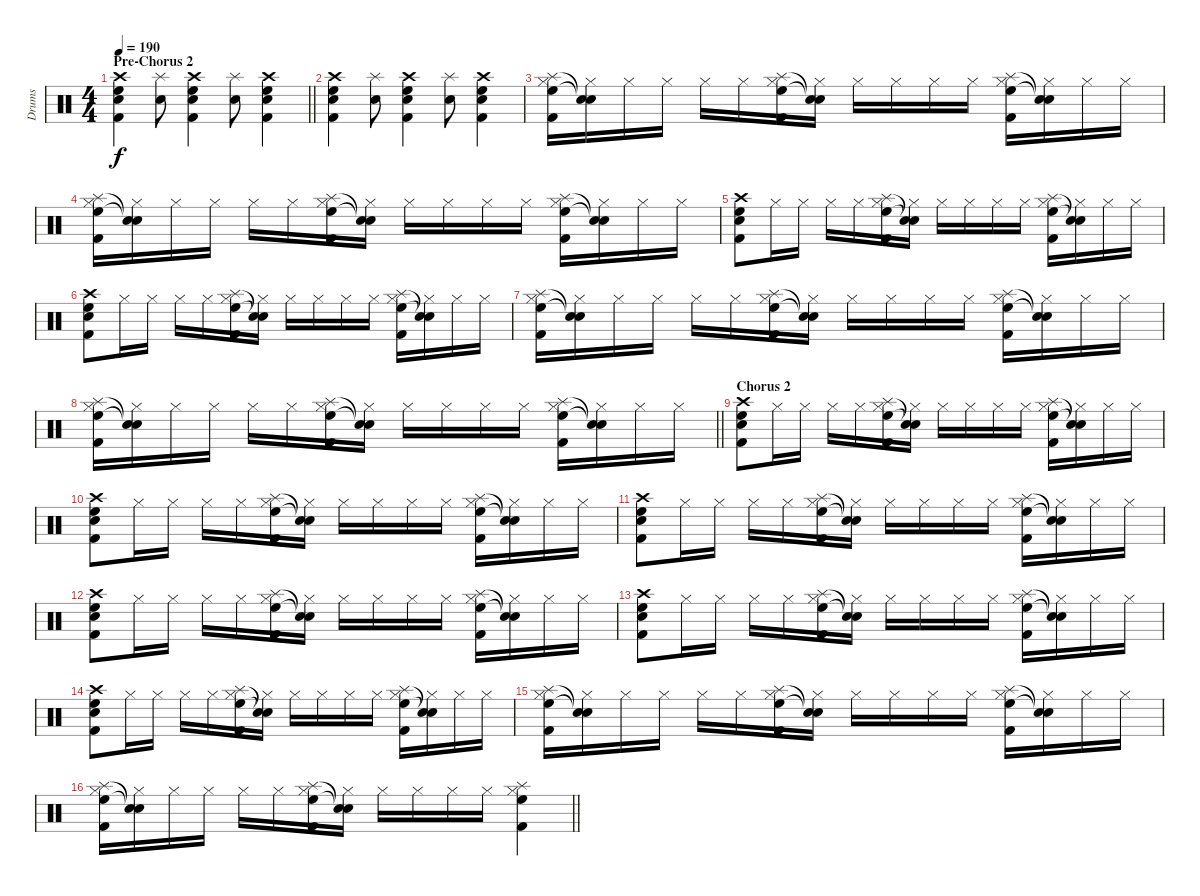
\track ("Drums" "Drums") {instrument percussion}
\staff {score}
\articulation defaults
\ts (4 4)
\section ("" "Pre-Chorus 2")
\tempo 190
\clef neutral
\barLineRight lightlight
\ks c
("Crash high (hit)" "High Floor Tom (hit)" "Snare (hit) 2" "Kick (hit) 2").4{dy f} ("Splash (hit)" "Electric Snare (hit)").8 ("Crash high (hit)" "High Floor Tom (hit)" "Snare (hit) 2" "Kick (hit) 2").4 ("Splash (hit)" "Electric Snare (hit)").8 ("Crash high (hit)" "High Floor Tom (hit)" "Snare (hit) 2" "Kick (hit) 2").4 |
("Crash high (hit)" "High Floor Tom (hit)" "Snare (hit) 2" "Kick (hit) 2").4 ("Splash (hit)" "Electric Snare (hit)").8 ("Crash high (hit)" "High Floor Tom (hit)" "Snare (hit) 2" "Kick (hit) 2").4 ("Splash (hit)" "Electric Snare (hit)").8 ("Crash high (hit)" "High Floor Tom (hit)" "Snare (hit) 2" "Kick (hit) 2").4 |
("Hi-Hat (closed)" "Splash (hit)" "High Floor Tom (hit)" "Kick (hit) 2").16 ("Hi-Hat (closed)" "Snare (hit)"{t} "Snare (hit)"{t}).16 "Hi-Hat (closed)".16 "Hi-Hat (closed)".16 "Hi-Hat (closed)".16 "Hi-Hat (closed)".16 ("Hi-Hat (closed)" "Splash (hit)" "High Floor Tom (hit)" "Kick (hit) 2").16 ("Hi-Hat (closed)" "Snare (hit)"{t} "Snare (hit)"{t}).16 "Hi-Hat (closed)".16 "Hi-Hat (closed)".16 "Hi-Hat (closed)".16 "Hi-Hat (closed)".16 ("Hi-Hat (closed)" "Splash (hit)" "High Floor Tom (hit)" "Kick (hit) 2").16 ("Hi-Hat (closed)" "Snare (hit)"{t} "Snare (hit)"{t}).16 "Hi-Hat (closed)".16 "Hi-Hat (closed)".16 |
("Hi-Hat (closed)" "Splash (hit)" "High Floor Tom (hit)" "Kick (hit) 2").16 ("Hi-Hat (closed)" "Snare (hit)"{t} "Snare (hit)"{t}).16 "Hi-Hat (closed)".16 "Hi-Hat (closed)".16 "Hi-Hat (closed)".16 "Hi-Hat (closed)".16 ("Hi-Hat (closed)" "Splash (hit)" "High Floor Tom (hit)" "Kick (hit) 2").16 ("Hi-Hat (closed)" "Snare (hit)"{t} "Snare (hit)"{t}).16 "Hi-Hat (closed)".16 "Hi-Hat (closed)".16 "Hi-Hat (closed)".16 "Hi-Hat (closed)".16 ("Hi-Hat (closed)" "Splash (hit)" "High Floor Tom (hit)" "Kick (hit) 2").16 ("Hi-Hat (closed)" "Snare (hit)"{t} "Snare (hit)"{t}).16 "Hi-Hat (closed)".16 "Hi-Hat (closed)".16 |
("Crash high (hit)" "High Floor Tom (hit)" "Snare (hit) 2" "Kick (hit) 2").8 "Hi-Hat (closed)".16 "Hi-Hat (closed)".16 "Hi-Hat (closed)".16 "Hi-Hat (closed)".16 ("Hi-Hat (closed)" "Splash (hit)" "High Floor Tom (hit)" "Kick (hit) 2").16 ("Hi-Hat (closed)" "Snare (hit)"{t} "Snare (hit)"{t}).16 "Hi-Hat (closed)".16 "Hi-Hat (closed)".16 "Hi-Hat (closed)".16 "Hi-Hat (closed)".16 ("Hi-Hat (closed)" "Splash (hit)" "High Floor Tom (hit)" "Kick (hit) 2").16 ("Hi-Hat (closed)" "Snare (hit)"{t} "Snare (hit)"{t}).16 "Hi-Hat (closed)".16 "Hi-Hat (closed)".16 |
("Crash high (hit)" "High Floor Tom (hit)" "Snare (hit) 2" "Kick (hit) 2").8 "Hi-Hat (closed)".16 "Hi-Hat (closed)".16 "Hi-Hat (closed)".16 "Hi-Hat (closed)".16 ("Hi-Hat (closed)" "Splash (hit)" "High Floor Tom (hit)" "Kick (hit) 2").16 ("Hi-Hat (closed)" "Snare (hit)"{t} "Snare (hit)"{t}).16 "Hi-Hat (closed)".16 "Hi-Hat (closed)".16 "Hi-Hat (closed)".16 "Hi-Hat (closed)".16 ("Hi-Hat (closed)" "Splash (hit)" "High Floor Tom (hit)" "Kick (hit) 2").16 ("Hi-Hat (closed)" "Snare (hit)"{t} "Snare (hit)"{t}).16 "Hi-Hat (closed)".16 "Hi-Hat (closed)".16 |
("Hi-Hat (closed)" "Splash (hit)" "High Floor Tom (hit)" "Kick (hit) 2").16 ("Hi-Hat (closed)" "Snare (hit)"{t} "Snare (hit)"{t}).16 "Hi-Hat (closed)".16 "Hi-Hat (closed)".16 "Hi-Hat (closed)".16 "Hi-Hat (closed)".16 ("Hi-Hat (closed)" "Splash (hit)" "High Floor Tom (hit)" "Kick (hit) 2").16 ("Hi-Hat (closed)" "Snare (hit)"{t} "Snare (hit)"{t}).16 "Hi-Hat (closed)".16 "Hi-Hat (closed)".16 "Hi-Hat (closed)".16 "Hi-Hat (closed)".16 ("Hi-Hat (closed)" "Splash (hit)" "High Floor Tom (hit)" "Kick (hit) 2").16 ("Hi-Hat (closed)" "Snare (hit)"{t} "Snare (hit)"{t}).16 "Hi-Hat (closed)".16 "Hi-Hat (closed)".16 |
\barLineRight lightlight
("Hi-Hat (closed)" "Splash (hit)" "High Floor Tom (hit)" "Kick (hit) 2").16 ("Hi-Hat (closed)" "Snare (hit)"{t} "Snare (hit)"{t}).16 "Hi-Hat (closed)".16 "Hi-Hat (closed)".16 "Hi-Hat (closed)".16 "Hi-Hat (closed)".16 ("Hi-Hat (closed)" "Splash (hit)" "High Floor Tom (hit)" "Kick (hit) 2").16 ("Hi-Hat (closed)" "Snare (hit)"{t} "Snare (hit)"{t}).16 "Hi-Hat (closed)".16 "Hi-Hat (closed)".16 "Hi-Hat (closed)".16 "Hi-Hat (closed)".16 ("Hi-Hat (closed)" "Splash (hit)" "High Floor Tom (hit)" "Kick (hit) 2").16 ("Hi-Hat (closed)" "Snare (hit)"{t} "Snare (hit)"{t}).16 "Hi-Hat (closed)".16 "Hi-Hat (closed)".16 |
\section ("" "Chorus 2")
("Crash high (hit)" "High Floor Tom (hit)" "Snare (hit) 2" "Kick (hit) 2").8 "Hi-Hat (closed)".16 "Hi-Hat (closed)".16 "Hi-Hat (closed)".16 "Hi-Hat (closed)".16 ("Hi-Hat (closed)" "Splash (hit)" "High Floor Tom (hit)" "Kick (hit) 2").16 ("Hi-Hat (closed)" "Snare (hit)"{t} "Snare (hit)"{t}).16 "Hi-Hat (closed)".16 "Hi-Hat (closed)".16 "Hi-Hat (closed)".16 "Hi-Hat (closed)".16 ("Hi-Hat (closed)" "Splash (hit)" "High Floor Tom (hit)" "Kick (hit) 2").16 ("Hi-Hat (closed)" "Snare (hit)"{t} "Snare (hit)"{t}).16 "Hi-Hat (closed)".16 "Hi-Hat (closed)".16 |
("Crash high (hit)" "High Floor Tom (hit)" "Snare (hit) 2" "Kick (hit) 2").8 "Hi-Hat (closed)".16 "Hi-Hat (closed)".16 "Hi-Hat (closed)".16 "Hi-Hat (closed)".16 ("Hi-Hat (closed)" "Splash (hit)" "High Floor Tom (hit)" "Kick (hit) 2").16 ("Hi-Hat (closed)" "Snare (hit)"{t} "Snare (hit)"{t}).16 "Hi-Hat (closed)".16 "Hi-Hat (closed)".16 "Hi-Hat (closed)".16 "Hi-Hat (closed)".16 ("Hi-Hat (closed)" "Splash (hit)" "High Floor Tom (hit)" "Kick (hit) 2").16 ("Hi-Hat (closed)" "Snare (hit)"{t} "Snare (hit)"{t}).16 "Hi-Hat (closed)".16 "Hi-Hat (closed)".16 |
("Crash high (hit)" "High Floor Tom (hit)" "Snare (hit) 2" "Kick (hit) 2").8 "Hi-Hat (closed)".16 "Hi-Hat (closed)".16 "Hi-Hat (closed)".16 "Hi-Hat (closed)".16 ("Hi-Hat (closed)" "Splash (hit)" "High Floor Tom (hit)" "Kick (hit) 2").16 ("Hi-Hat (closed)" "Snare (hit)"{t} "Snare (hit)"{t}).16 "Hi-Hat (closed)".16 "Hi-Hat (closed)".16 "Hi-Hat (closed)".16 "Hi-Hat (closed)".16 ("Hi-Hat (closed)" "Splash (hit)" "High Floor Tom (hit)" "Kick (hit) 2").16 ("Hi-Hat (closed)" "Snare (hit)"{t} "Snare (hit)"{t}).16 "Hi-Hat (closed)".16 "Hi-Hat (closed)".16 |
("Crash high (hit)" "High Floor Tom (hit)" "Snare (hit) 2" "Kick (hit) 2").8 "Hi-Hat (closed)".16 "Hi-Hat (closed)".16 "Hi-Hat (closed)".16 "Hi-Hat (closed)".16 ("Hi-Hat (closed)" "Splash (hit)" "High Floor Tom (hit)" "Kick (hit) 2").16 ("Hi-Hat (closed)" "Snare (hit)"{t} "Snare (hit)"{t}).16 "Hi-Hat (closed)".16 "Hi-Hat (closed)".16 "Hi-Hat (closed)".16 "Hi-Hat (closed)".16 ("Hi-Hat (closed)" "Splash (hit)" "High Floor Tom (hit)" "Kick (hit) 2").16 ("Hi-Hat (closed)" "Snare (hit)"{t} "Snare (hit)"{t}).16 "Hi-Hat (closed)".16 "Hi-Hat (closed)".16 |
("Crash high (hit)" "High Floor Tom (hit)" "Snare (hit) 2" "Kick (hit) 2").8 "Hi-Hat (closed)".16 "Hi-Hat (closed)".16 "Hi-Hat (closed)".16 "Hi-Hat (closed)".16 ("Hi-Hat (closed)" "Splash (hit)" "High Floor Tom (hit)" "Kick (hit) 2").16 ("Hi-Hat (closed)" "Snare (hit)"{t} "Snare (hit)"{t}).16 "Hi-Hat (closed)".16 "Hi-Hat (closed)".16 "Hi-Hat (closed)".16 "Hi-Hat (closed)".16 ("Hi-Hat (closed)" "Splash (hit)" "High Floor Tom (hit)" "Kick (hit) 2").16 ("Hi-Hat (closed)" "Snare (hit)"{t} "Snare (hit)"{t}).16 "Hi-Hat (closed)".16 "Hi-Hat (closed)".16 |
("Crash high (hit)" "High Floor Tom (hit)" "Snare (hit) 2" "Kick (hit) 2").8 "Hi-Hat (closed)".16 "Hi-Hat (closed)".16 "Hi-Hat (closed)".16 "Hi-Hat (closed)".16 ("Hi-Hat (closed)" "Splash (hit)" "High Floor Tom (hit)" "Kick (hit) 2").16 ("Hi-Hat (closed)" "Snare (hit)"{t} "Snare (hit)"{t}).16 "Hi-Hat (closed)".16 "Hi-Hat (closed)".16 "Hi-Hat (closed)".16 "Hi-Hat (closed)".16 ("Hi-Hat (closed)" "Splash (hit)" "High Floor Tom (hit)" "Kick (hit) 2").16 ("Hi-Hat (closed)" "Snare (hit)"{t} "Snare (hit)"{t}).16 "Hi-Hat (closed)".16 "Hi-Hat (closed)".16 |
("Hi-Hat (closed)" "Splash (hit)" "High Floor Tom (hit)" "Kick (hit) 2").16 ("Hi-Hat (closed)" "Snare (hit)"{t} "Snare (hit)"{t}).16 "Hi-Hat (closed)".16 "Hi-Hat (closed)".16 "Hi-Hat (closed)".16 "Hi-Hat (closed)".16 ("Hi-Hat (closed)" "Splash (hit)" "High Floor Tom (hit)" "Kick (hit) 2").16 ("Hi-Hat (closed)" "Snare (hit)"{t} "Snare (hit)"{t}).16 "Hi-Hat (closed)".16 "Hi-Hat (closed)".16 "Hi-Hat (closed)".16 "Hi-Hat (closed)".16 ("Hi-Hat (closed)" "Splash (hit)" "High Floor Tom (hit)" "Kick (hit) 2").16 ("Hi-Hat (closed)" "Snare (hit)"{t} "Snare (hit)"{t}).16 "Hi-Hat (closed)".16 "Hi-Hat (closed)".16 |
\barLineRight lightlight
("Hi-Hat (closed)" "Splash (hit)" "High Floor Tom (hit)" "Kick (hit) 2").16 ("Hi-Hat (closed)" "Snare (hit)"{t} "Snare (hit)"{t}).16 "Hi-Hat (closed)".16 "Hi-Hat (closed)".16 "Hi-Hat (closed)".16 "Hi-Hat (closed)".16 ("Hi-Hat (closed)" "Splash (hit)" "High Floor Tom (hit)" "Kick (hit) 2").16 ("Hi-Hat (closed)" "Snare (hit)"{t} "Snare (hit)"{t}).16 "Hi-Hat (closed)".16 "Hi-Hat (closed)".16 "Hi-Hat (closed)".16 "Hi-Hat (closed)".16 ("Hi-Hat (closed)" "Splash (hit)" "High Floor Tom (hit)" "Kick (hit) 2").4
